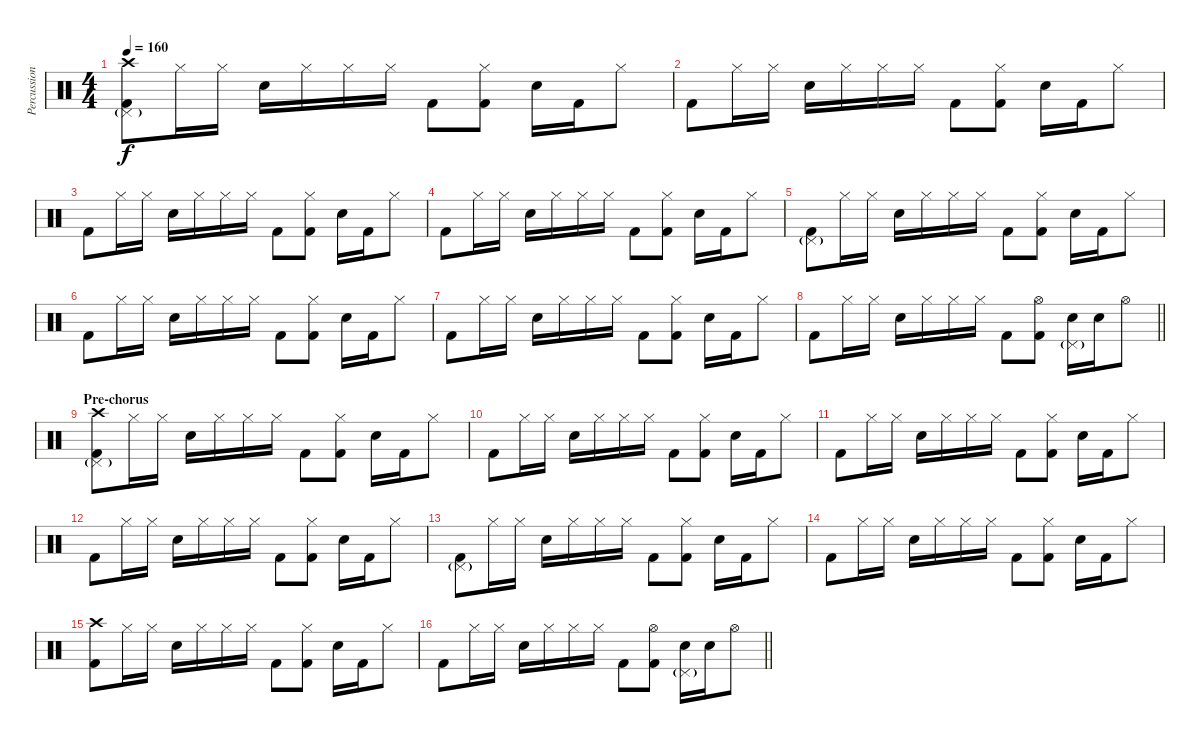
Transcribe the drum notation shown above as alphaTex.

\track ("Percussion" "Percussion") {instrument percussion}
\staff {score}
\articulation defaults
\ts (4 4)
\tempo 160
\clef neutral
\ks c
("Crash high (hit)" "Pedal Hi-Hat (hit)"{g} "Kick (hit) 2").8{dy f} "Hi-Hat (closed)".16 "Hi-Hat (closed)".16 "Electric Snare (hit)".16 "Hi-Hat (closed)".16 "Hi-Hat (closed)".16 "Hi-Hat (closed)".16 "Kick (hit) 2".8 ("Hi-Hat (closed)" "Kick (hit) 2").8 "Electric Snare (hit)".16 "Kick (hit) 2".16 "Hi-Hat (closed)".8 |
"Kick (hit) 2".8 "Hi-Hat (closed)".16 "Hi-Hat (closed)".16 "Electric Snare (hit)".16 "Hi-Hat (closed)".16 "Hi-Hat (closed)".16 "Hi-Hat (closed)".16 "Kick (hit) 2".8 ("Hi-Hat (closed)" "Kick (hit) 2").8 "Electric Snare (hit)".16 "Kick (hit) 2".16 "Hi-Hat (closed)".8 |
"Kick (hit) 2".8 "Hi-Hat (closed)".16 "Hi-Hat (closed)".16 "Electric Snare (hit)".16 "Hi-Hat (closed)".16 "Hi-Hat (closed)".16 "Hi-Hat (closed)".16 "Kick (hit) 2".8 ("Hi-Hat (closed)" "Kick (hit) 2").8 "Electric Snare (hit)".16 "Kick (hit) 2".16 "Hi-Hat (closed)".8 |
"Kick (hit) 2".8 "Hi-Hat (closed)".16 "Hi-Hat (closed)".16 "Electric Snare (hit)".16 "Hi-Hat (closed)".16 "Hi-Hat (closed)".16 "Hi-Hat (closed)".16 "Kick (hit) 2".8 ("Hi-Hat (closed)" "Kick (hit) 2").8 "Electric Snare (hit)".16 "Kick (hit) 2".16 "Hi-Hat (closed)".8 |
("Pedal Hi-Hat (hit)"{g} "Kick (hit) 2").8 "Hi-Hat (closed)".16 "Hi-Hat (closed)".16 "Electric Snare (hit)".16 "Hi-Hat (closed)".16 "Hi-Hat (closed)".16 "Hi-Hat (closed)".16 "Kick (hit) 2".8 ("Hi-Hat (closed)" "Kick (hit) 2").8 "Electric Snare (hit)".16 "Kick (hit) 2".16 "Hi-Hat (closed)".8 |
"Kick (hit) 2".8 "Hi-Hat (closed)".16 "Hi-Hat (closed)".16 "Electric Snare (hit)".16 "Hi-Hat (closed)".16 "Hi-Hat (closed)".16 "Hi-Hat (closed)".16 "Kick (hit) 2".8 ("Hi-Hat (closed)" "Kick (hit) 2").8 "Electric Snare (hit)".16 "Kick (hit) 2".16 "Hi-Hat (closed)".8 |
"Kick (hit) 2".8 "Hi-Hat (closed)".16 "Hi-Hat (closed)".16 "Electric Snare (hit)".16 "Hi-Hat (closed)".16 "Hi-Hat (closed)".16 "Hi-Hat (closed)".16 "Kick (hit) 2".8 ("Hi-Hat (closed)" "Kick (hit) 2").8 "Electric Snare (hit)".16 "Kick (hit) 2".16 "Hi-Hat (closed)".8 |
\barLineRight lightlight "Kick (hit) 2".8 "Hi-Hat (closed)".16 "Hi-Hat (closed)".16 "Electric Snare (hit)".16 "Hi-Hat (closed)".16 "Hi-Hat (closed)".16 "Hi-Hat (closed)".16 "Kick (hit) 2".8
("Hi-Hat (open)" "Kick (hit) 2").8 ("Pedal Hi-Hat (hit)"{g} "Electric Snare (hit)").16 "Electric Snare (hit)".16 "Hi-Hat (open)".8 |
\section ("" "Pre-chorus")
("Crash high (hit)" "Pedal Hi-Hat (hit)"{g} "Kick (hit) 2").8 "Hi-Hat (closed)".16 "Hi-Hat (closed)".16 "Electric Snare (hit)".16 "Hi-Hat (closed)".16 "Hi-Hat (closed)".16 "Hi-Hat (closed)".16 "Kick (hit) 2".8 ("Hi-Hat (closed)" "Kick (hit) 2").8 "Electric Snare (hit)".16 "Kick (hit) 2".16 "Hi-Hat (closed)".8 |
"Kick (hit) 2".8 "Hi-Hat (closed)".16 "Hi-Hat (closed)".16 "Electric Snare (hit)".16 "Hi-Hat (closed)".16 "Hi-Hat (closed)".16 "Hi-Hat (closed)".16 "Kick (hit) 2".8 ("Hi-Hat (closed)" "Kick (hit) 2").8 "Electric Snare (hit)".16 "Kick (hit) 2".16 "Hi-Hat (closed)".8 |
"Kick (hit) 2".8 "Hi-Hat (closed)".16 "Hi-Hat (closed)".16 "Electric Snare (hit)".16 "Hi-Hat (closed)".16 "Hi-Hat (closed)".16 "Hi-Hat (closed)".16 "Kick (hit) 2".8 ("Hi-Hat (closed)" "Kick (hit) 2").8 "Electric Snare (hit)".16 "Kick (hit) 2".16 "Hi-Hat (closed)".8 |
"Kick (hit) 2".8 "Hi-Hat (closed)".16 "Hi-Hat (closed)".16 "Electric Snare (hit)".16 "Hi-Hat (closed)".16 "Hi-Hat (closed)".16 "Hi-Hat (closed)".16 "Kick (hit) 2".8 ("Hi-Hat (closed)" "Kick (hit) 2").8 "Electric Snare (hit)".16 "Kick (hit) 2".16 "Hi-Hat (closed)".8 |
("Pedal Hi-Hat (hit)"{g} "Kick (hit) 2").8 "Hi-Hat (closed)".16 "Hi-Hat (closed)".16 "Electric Snare (hit)".16 "Hi-Hat (closed)".16 "Hi-Hat (closed)".16 "Hi-Hat (closed)".16 "Kick (hit) 2".8 ("Hi-Hat (closed)" "Kick (hit) 2").8 "Electric Snare (hit)".16 "Kick (hit) 2".16 "Hi-Hat (closed)".8 |
"Kick (hit) 2".8 "Hi-Hat (closed)".16 "Hi-Hat (closed)".16 "Electric Snare (hit)".16 "Hi-Hat (closed)".16 "Hi-Hat (closed)".16 "Hi-Hat (closed)".16 "Kick (hit) 2".8 ("Hi-Hat (closed)" "Kick (hit) 2").8 "Electric Snare (hit)".16 "Kick (hit) 2".16 "Hi-Hat (closed)".8 |
("Crash high (hit)" "Kick (hit) 2").8 "Hi-Hat (closed)".16 "Hi-Hat (closed)".16 "Electric Snare (hit)".16 "Hi-Hat (closed)".16 "Hi-Hat (closed)".16 "Hi-Hat (closed)".16 "Kick (hit) 2".8 ("Hi-Hat (closed)" "Kick (hit) 2").8 "Electric Snare (hit)".16 "Kick (hit) 2".16 "Hi-Hat (closed)".8 |
\barLineRight lightlight "Kick (hit) 2".8 "Hi-Hat (closed)".16 "Hi-Hat (closed)".16 "Electric Snare (hit)".16 "Hi-Hat (closed)".16 "Hi-Hat (closed)".16 "Hi-Hat (closed)".16 "Kick (hit) 2".8
("Hi-Hat (open)" "Kick (hit) 2").8 ("Pedal Hi-Hat (hit)"{g} "Electric Snare (hit)").16 "Electric Snare (hit)".16 "Hi-Hat (open)".8
